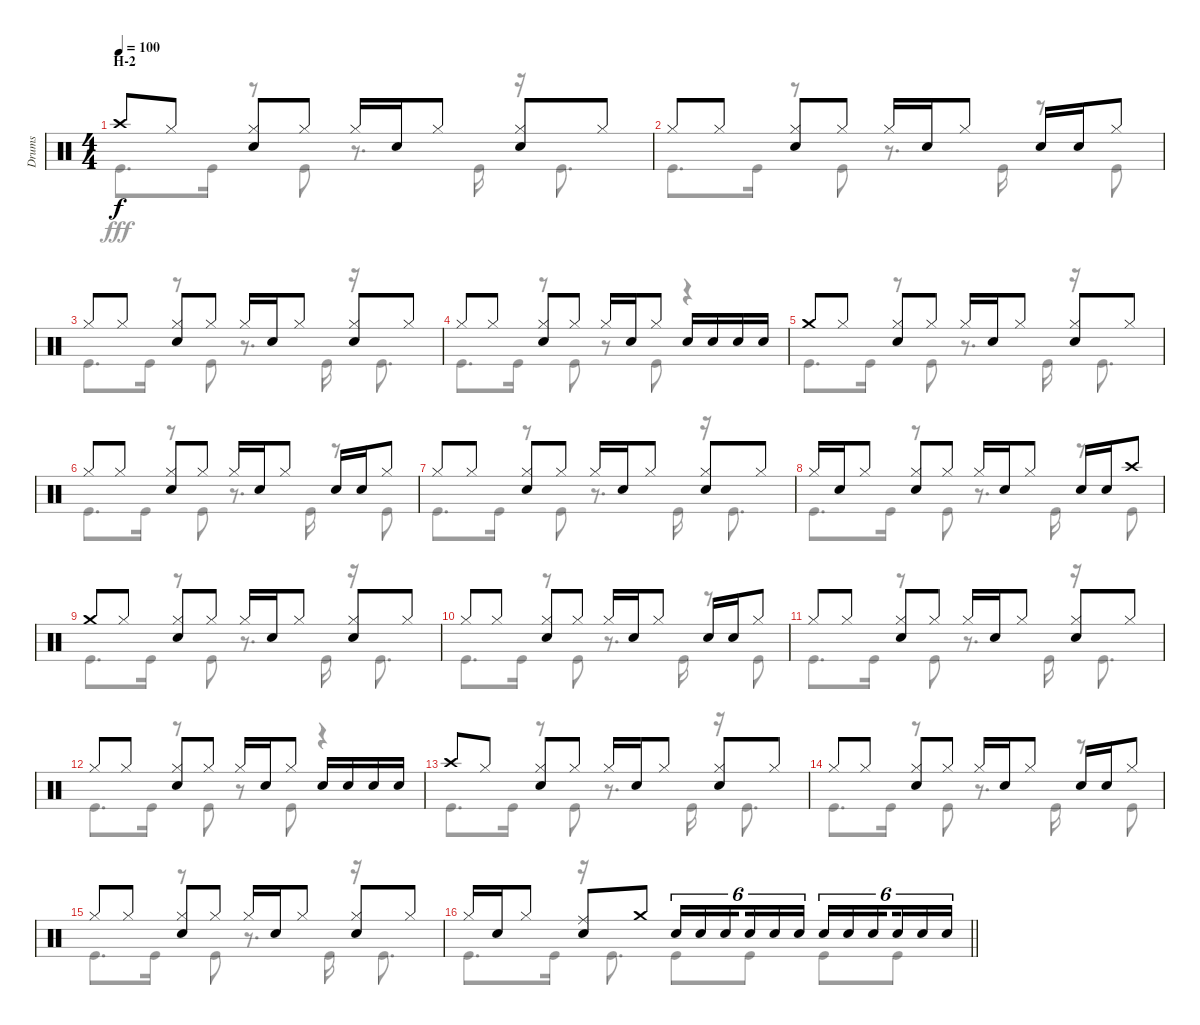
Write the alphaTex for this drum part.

\track ("Drums" "Drums") {instrument percussion}
\staff {score}
\articulation defaults
\voice
\ts (4 4)
\section ("" "H-2")
\tempo 100
\clef neutral
\ks c "Crash high (hit)".8{dy f} "Hi-Hat (closed)".8
("Hi-Hat (closed)" "Snare (hit) 2").8 "Hi-Hat (closed)".8 "Hi-Hat (closed)".16 "Snare (hit) 2".16 "Hi-Hat (closed)".8 ("Hi-Hat (closed)" "Snare (hit) 2").8 "Hi-Hat (closed)".8 |
"Hi-Hat (closed)".8 "Hi-Hat (closed)".8 ("Hi-Hat (closed)" "Snare (hit) 2").8 "Hi-Hat (closed)".8 "Hi-Hat (closed)".16 "Snare (hit) 2".16 "Hi-Hat (closed)".8 "Snare (hit) 2".16 "Snare (hit) 2".16 "Hi-Hat (closed)".8 |
"Hi-Hat (closed)".8 "Hi-Hat (closed)".8 ("Hi-Hat (closed)" "Snare (hit) 2").8 "Hi-Hat (closed)".8 "Hi-Hat (closed)".16 "Snare (hit) 2".16 "Hi-Hat (closed)".8 ("Hi-Hat (closed)" "Snare (hit) 2").8 "Hi-Hat (closed)".8 |
"Hi-Hat (closed)".8 "Hi-Hat (closed)".8 ("Hi-Hat (closed)" "Snare (hit) 2").8 "Hi-Hat (closed)".8 "Hi-Hat (closed)".16 "Snare (hit) 2".16 "Hi-Hat (closed)".8 "Snare (hit) 2".16 "Snare (hit) 2".16 "Snare (hit) 2".16 "Snare (hit) 2".16 |
"Crash medium (hit)".8 "Hi-Hat (closed)".8 ("Hi-Hat (closed)" "Snare (hit) 2").8 "Hi-Hat (closed)".8 "Hi-Hat (closed)".16 "Snare (hit) 2".16 "Hi-Hat (closed)".8 ("Hi-Hat (closed)" "Snare (hit) 2").8 "Hi-Hat (closed)".8 |
"Hi-Hat (closed)".8 "Hi-Hat (closed)".8 ("Hi-Hat (closed)" "Snare (hit) 2").8 "Hi-Hat (closed)".8 "Hi-Hat (closed)".16 "Snare (hit) 2".16 "Hi-Hat (closed)".8 "Snare (hit) 2".16 "Snare (hit) 2".16 "Hi-Hat (closed)".8 |
"Hi-Hat (closed)".8 "Hi-Hat (closed)".8 ("Hi-Hat (closed)" "Snare (hit) 2").8 "Hi-Hat (closed)".8 "Hi-Hat (closed)".16 "Snare (hit) 2".16 "Hi-Hat (closed)".8 ("Hi-Hat (closed)" "Snare (hit) 2").8 "Hi-Hat (closed)".8 |
"Hi-Hat (closed)".16 "Snare (hit) 2".16 "Hi-Hat (closed)".8 ("Hi-Hat (closed)" "Snare (hit) 2").8 "Hi-Hat (closed)".8 "Hi-Hat (closed)".16 "Snare (hit) 2".16 "Hi-Hat (closed)".8 "Snare (hit) 2".16 "Snare (hit) 2".16 "Crash high (hit)".8 |
"Crash medium (hit)".8 "Hi-Hat (closed)".8 ("Hi-Hat (closed)" "Snare (hit) 2").8 "Hi-Hat (closed)".8 "Hi-Hat (closed)".16 "Snare (hit) 2".16 "Hi-Hat (closed)".8 ("Hi-Hat (closed)" "Snare (hit) 2").8 "Hi-Hat (closed)".8 |
"Hi-Hat (closed)".8 "Hi-Hat (closed)".8 ("Hi-Hat (closed)" "Snare (hit) 2").8 "Hi-Hat (closed)".8 "Hi-Hat (closed)".16 "Snare (hit) 2".16 "Hi-Hat (closed)".8 "Snare (hit) 2".16 "Snare (hit) 2".16 "Hi-Hat (closed)".8 |
"Hi-Hat (closed)".8 "Hi-Hat (closed)".8 ("Hi-Hat (closed)" "Snare (hit) 2").8 "Hi-Hat (closed)".8 "Hi-Hat (closed)".16 "Snare (hit) 2".16 "Hi-Hat (closed)".8 ("Hi-Hat (closed)" "Snare (hit) 2").8 "Hi-Hat (closed)".8 |
"Hi-Hat (closed)".8 "Hi-Hat (closed)".8 ("Hi-Hat (closed)" "Snare (hit) 2").8 "Hi-Hat (closed)".8 "Hi-Hat (closed)".16 "Snare (hit) 2".16 "Hi-Hat (closed)".8 "Snare (hit) 2".16 "Snare (hit) 2".16 "Snare (hit) 2".16 "Snare (hit) 2".16 |
"Crash high (hit)".8 "Hi-Hat (closed)".8 ("Hi-Hat (closed)" "Snare (hit) 2").8 "Hi-Hat (closed)".8 "Hi-Hat (closed)".16 "Snare (hit) 2".16 "Hi-Hat (closed)".8 ("Hi-Hat (closed)" "Snare (hit) 2").8 "Hi-Hat (closed)".8 |
"Hi-Hat (closed)".8 "Hi-Hat (closed)".8 ("Hi-Hat (closed)" "Snare (hit) 2").8 "Hi-Hat (closed)".8 "Hi-Hat (closed)".16 "Snare (hit) 2".16 "Hi-Hat (closed)".8 "Snare (hit) 2".16 "Snare (hit) 2".16 "Hi-Hat (closed)".8 |
"Hi-Hat (closed)".8 "Hi-Hat (closed)".8 ("Hi-Hat (closed)" "Snare (hit) 2").8 "Hi-Hat (closed)".8 "Hi-Hat (closed)".16 "Snare (hit) 2".16 "Hi-Hat (closed)".8 ("Hi-Hat (closed)" "Snare (hit) 2").8 "Hi-Hat (closed)".8 |
\barLineRight lightlight "Hi-Hat (closed)".16 "Snare (hit) 2".16 "Hi-Hat (closed)".8
("Ride (middle)" "Snare (hit) 2").8 "Crash medium (hit)".8 "Snare (hit) 2".16{tu (6 4)} "Snare (hit) 2".16{tu (6 4)} "Snare (hit) 2".16{tu (6 4) beam splitsecondary} "Snare (hit) 2".16{tu (6 4)} "Snare (hit) 2".16{tu (6 4)} "Snare (hit) 2".16{tu (6 4)} "Snare (hit) 2".16{tu (6 4)} "Snare (hit) 2".16{tu (6 4)} "Snare (hit) 2".16{tu (6 4) beam splitsecondary} "Snare (hit) 2".16{tu (6 4)} "Snare (hit) 2".16{tu (6 4)} "Snare (hit) 2".16{tu (6 4)}
\voice
\clef neutral
\ottava regular
\simile none
\ks c "Kick (hit)".8{d dy fff} "Kick (hit)".16
r.8 "Kick (hit)".8 r.8{d} "Kick (hit)".16 r.16 "Kick (hit)".8{d} |
"Kick (hit)".8{d} "Kick (hit)".16 r.8 "Kick (hit)".8 r.8{d} "Kick (hit)".16 r.8 "Kick (hit)".8 |
"Kick (hit)".8{d} "Kick (hit)".16 r.8 "Kick (hit)".8 r.8{d} "Kick (hit)".16 r.16 "Kick (hit)".8{d} |
"Kick (hit)".8{d} "Kick (hit)".16 r.8 "Kick (hit)".8 r.8 "Kick (hit)".8 r.4 |
"Kick (hit)".8{d} "Kick (hit)".16 r.8 "Kick (hit)".8 r.8{d} "Kick (hit)".16 r.16 "Kick (hit)".8{d} |
"Kick (hit)".8{d} "Kick (hit)".16 r.8 "Kick (hit)".8 r.8{d} "Kick (hit)".16 r.8 "Kick (hit)".8 |
"Kick (hit)".8{d} "Kick (hit)".16 r.8 "Kick (hit)".8 r.8{d} "Kick (hit)".16 r.16 "Kick (hit)".8{d} |
"Kick (hit)".8{d} "Kick (hit)".16 r.8 "Kick (hit)".8 r.8{d} "Kick (hit)".16 r.8 "Kick (hit)".8 |
"Kick (hit)".8{d} "Kick (hit)".16 r.8 "Kick (hit)".8 r.8{d} "Kick (hit)".16 r.16 "Kick (hit)".8{d} |
"Kick (hit)".8{d} "Kick (hit)".16 r.8 "Kick (hit)".8 r.8{d} "Kick (hit)".16 r.8 "Kick (hit)".8 |
"Kick (hit)".8{d} "Kick (hit)".16 r.8 "Kick (hit)".8 r.8{d} "Kick (hit)".16 r.16 "Kick (hit)".8{d} |
"Kick (hit)".8{d} "Kick (hit)".16 r.8 "Kick (hit)".8 r.8 "Kick (hit)".8 r.4 |
"Kick (hit)".8{d} "Kick (hit)".16 r.8 "Kick (hit)".8 r.8{d} "Kick (hit)".16 r.16 "Kick (hit)".8{d} |
"Kick (hit)".8{d} "Kick (hit)".16 r.8 "Kick (hit)".8 r.8{d} "Kick (hit)".16 r.8 "Kick (hit)".8 |
"Kick (hit)".8{d} "Kick (hit)".16 r.8 "Kick (hit)".8 r.8{d} "Kick (hit)".16 r.16 "Kick (hit)".8{d} |
\barLineRight lightlight "Kick (hit)".8{d} "Kick (hit)".16
r.16 "Kick (hit)".8{d} "Kick (hit)".8 "Kick (hit)".8 "Kick (hit)".8 "Kick (hit)".8
